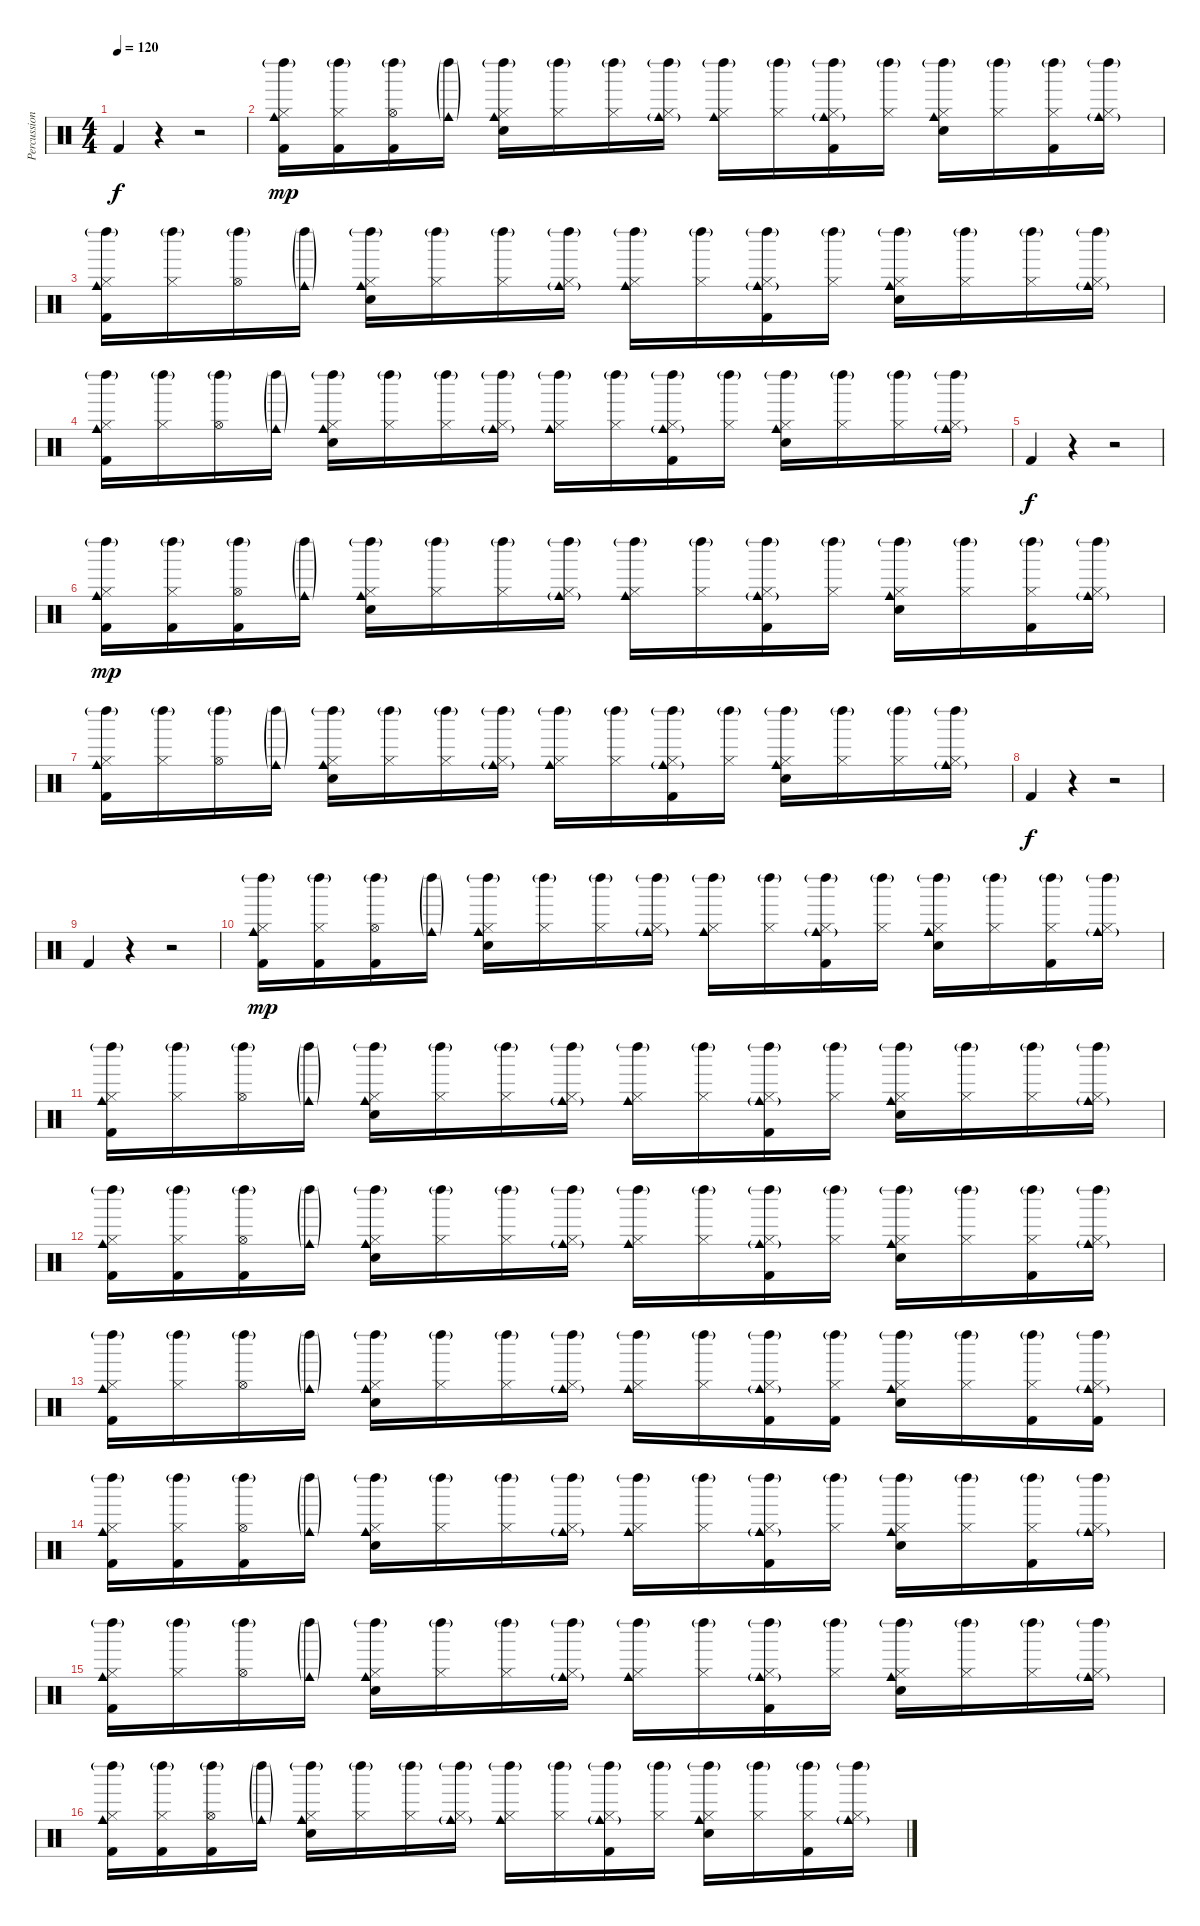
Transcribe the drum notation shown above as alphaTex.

\track ("Percussion" "Percussion") {instrument percussion}
\staff {score}
\articulation defaults
\ts (4 4)
\tempo 120
\clef neutral
\ks c "Kick (hit) 2".4{dy f}
r.4 r.2 |
("Kick (hit) 2" "Hi-Hat (closed)" "Cowbell medium (hit)" "Left Maraca (hit)"{g}).16{dy mp} ("Kick (hit) 2" "Hi-Hat (closed)" "Left Maraca (hit)"{g}).16 ("Kick (hit) 2" "Hi-Hat (open)" "Left Maraca (hit)"{g}).16 ("Cowbell medium (hit)"{g} "Left Maraca (hit)"{g}).16 ("Electric Snare (hit)" "Hi-Hat (closed)" "Cowbell medium (hit)" "Left Maraca (hit)"{g}).16 ("Hi-Hat (closed)" "Left Maraca (hit)"{g}).16 ("Hi-Hat (closed)" "Left Maraca (hit)"{g}).16 ("Hi-Hat (closed)" "Cowbell medium (hit)"{g} "Left Maraca (hit)"{g}).16 ("Hi-Hat (closed)" "Cowbell medium (hit)" "Left Maraca (hit)"{g}).16 ("Hi-Hat (closed)" "Left Maraca (hit)"{g}).16 ("Kick (hit) 2" "Hi-Hat (closed)" "Cowbell medium (hit)"{g} "Left Maraca (hit)"{g}).16 ("Hi-Hat (closed)" "Left Maraca (hit)"{g}).16 ("Electric Snare (hit)" "Hi-Hat (closed)" "Cowbell medium (hit)" "Left Maraca (hit)"{g}).16 ("Hi-Hat (closed)" "Left Maraca (hit)"{g}).16 ("Kick (hit) 2" "Hi-Hat (closed)" "Left Maraca (hit)"{g}).16 ("Hi-Hat (closed)" "Cowbell medium (hit)"{g} "Left Maraca (hit)"{g}).16 |
("Kick (hit) 2" "Hi-Hat (closed)" "Cowbell medium (hit)" "Left Maraca (hit)"{g}).16 ("Hi-Hat (closed)" "Left Maraca (hit)"{g}).16 ("Hi-Hat (open)" "Left Maraca (hit)"{g}).16 ("Cowbell medium (hit)"{g} "Left Maraca (hit)"{g}).16 ("Electric Snare (hit)" "Hi-Hat (closed)" "Cowbell medium (hit)" "Left Maraca (hit)"{g}).16 ("Hi-Hat (closed)" "Left Maraca (hit)"{g}).16 ("Hi-Hat (closed)" "Left Maraca (hit)"{g}).16 ("Hi-Hat (closed)" "Cowbell medium (hit)"{g} "Left Maraca (hit)"{g}).16 ("Hi-Hat (closed)" "Cowbell medium (hit)" "Left Maraca (hit)"{g}).16 ("Hi-Hat (closed)" "Left Maraca (hit)"{g}).16 ("Kick (hit) 2" "Hi-Hat (closed)" "Cowbell medium (hit)"{g} "Left Maraca (hit)"{g}).16 ("Hi-Hat (closed)" "Left Maraca (hit)"{g}).16 ("Electric Snare (hit)" "Hi-Hat (closed)" "Cowbell medium (hit)" "Left Maraca (hit)"{g}).16 ("Hi-Hat (closed)" "Left Maraca (hit)"{g}).16 ("Hi-Hat (closed)" "Left Maraca (hit)"{g}).16 ("Hi-Hat (closed)" "Cowbell medium (hit)"{g} "Left Maraca (hit)"{g}).16 |
("Kick (hit) 2" "Hi-Hat (closed)" "Cowbell medium (hit)" "Left Maraca (hit)"{g}).16 ("Hi-Hat (closed)" "Left Maraca (hit)"{g}).16 ("Hi-Hat (open)" "Left Maraca (hit)"{g}).16 ("Cowbell medium (hit)"{g} "Left Maraca (hit)"{g}).16 ("Electric Snare (hit)" "Hi-Hat (closed)" "Cowbell medium (hit)" "Left Maraca (hit)"{g}).16 ("Hi-Hat (closed)" "Left Maraca (hit)"{g}).16 ("Hi-Hat (closed)" "Left Maraca (hit)"{g}).16 ("Hi-Hat (closed)" "Cowbell medium (hit)"{g} "Left Maraca (hit)"{g}).16 ("Hi-Hat (closed)" "Cowbell medium (hit)" "Left Maraca (hit)"{g}).16 ("Hi-Hat (closed)" "Left Maraca (hit)"{g}).16 ("Kick (hit) 2" "Hi-Hat (closed)" "Cowbell medium (hit)"{g} "Left Maraca (hit)"{g}).16 ("Hi-Hat (closed)" "Left Maraca (hit)"{g}).16 ("Electric Snare (hit)" "Hi-Hat (closed)" "Cowbell medium (hit)" "Left Maraca (hit)"{g}).16 ("Hi-Hat (closed)" "Left Maraca (hit)"{g}).16 ("Hi-Hat (closed)" "Left Maraca (hit)"{g}).16 ("Hi-Hat (closed)" "Cowbell medium (hit)"{g} "Left Maraca (hit)"{g}).16 |
"Kick (hit) 2".4{dy f} r.4 r.2 |
("Kick (hit) 2" "Hi-Hat (closed)" "Cowbell medium (hit)" "Left Maraca (hit)"{g}).16{dy mp} ("Kick (hit) 2" "Hi-Hat (closed)" "Left Maraca (hit)"{g}).16 ("Kick (hit) 2" "Hi-Hat (open)" "Left Maraca (hit)"{g}).16 ("Cowbell medium (hit)"{g} "Left Maraca (hit)"{g}).16 ("Electric Snare (hit)" "Hi-Hat (closed)" "Cowbell medium (hit)" "Left Maraca (hit)"{g}).16 ("Hi-Hat (closed)" "Left Maraca (hit)"{g}).16 ("Hi-Hat (closed)" "Left Maraca (hit)"{g}).16 ("Hi-Hat (closed)" "Cowbell medium (hit)"{g} "Left Maraca (hit)"{g}).16 ("Hi-Hat (closed)" "Cowbell medium (hit)" "Left Maraca (hit)"{g}).16 ("Hi-Hat (closed)" "Left Maraca (hit)"{g}).16 ("Kick (hit) 2" "Hi-Hat (closed)" "Cowbell medium (hit)"{g} "Left Maraca (hit)"{g}).16 ("Hi-Hat (closed)" "Left Maraca (hit)"{g}).16 ("Electric Snare (hit)" "Hi-Hat (closed)" "Cowbell medium (hit)" "Left Maraca (hit)"{g}).16 ("Hi-Hat (closed)" "Left Maraca (hit)"{g}).16 ("Kick (hit) 2" "Hi-Hat (closed)" "Left Maraca (hit)"{g}).16 ("Hi-Hat (closed)" "Cowbell medium (hit)"{g} "Left Maraca (hit)"{g}).16 |
("Kick (hit) 2" "Hi-Hat (closed)" "Cowbell medium (hit)" "Left Maraca (hit)"{g}).16 ("Hi-Hat (closed)" "Left Maraca (hit)"{g}).16 ("Hi-Hat (open)" "Left Maraca (hit)"{g}).16 ("Cowbell medium (hit)"{g} "Left Maraca (hit)"{g}).16 ("Electric Snare (hit)" "Hi-Hat (closed)" "Cowbell medium (hit)" "Left Maraca (hit)"{g}).16 ("Hi-Hat (closed)" "Left Maraca (hit)"{g}).16 ("Hi-Hat (closed)" "Left Maraca (hit)"{g}).16 ("Hi-Hat (closed)" "Cowbell medium (hit)"{g} "Left Maraca (hit)"{g}).16 ("Hi-Hat (closed)" "Cowbell medium (hit)" "Left Maraca (hit)"{g}).16 ("Hi-Hat (closed)" "Left Maraca (hit)"{g}).16 ("Kick (hit) 2" "Hi-Hat (closed)" "Cowbell medium (hit)"{g} "Left Maraca (hit)"{g}).16 ("Hi-Hat (closed)" "Left Maraca (hit)"{g}).16 ("Electric Snare (hit)" "Hi-Hat (closed)" "Cowbell medium (hit)" "Left Maraca (hit)"{g}).16 ("Hi-Hat (closed)" "Left Maraca (hit)"{g}).16 ("Hi-Hat (closed)" "Left Maraca (hit)"{g}).16 ("Hi-Hat (closed)" "Cowbell medium (hit)"{g} "Left Maraca (hit)"{g}).16 |
"Kick (hit) 2".4{dy f} r.4 r.2 |
"Kick (hit) 2".4 r.4 r.2 |
("Kick (hit) 2" "Hi-Hat (closed)" "Cowbell medium (hit)" "Left Maraca (hit)"{g}).16{dy mp} ("Kick (hit) 2" "Hi-Hat (closed)" "Left Maraca (hit)"{g}).16 ("Kick (hit) 2" "Hi-Hat (open)" "Left Maraca (hit)"{g}).16 ("Cowbell medium (hit)"{g} "Left Maraca (hit)"{g}).16 ("Electric Snare (hit)" "Hi-Hat (closed)" "Cowbell medium (hit)" "Left Maraca (hit)"{g}).16 ("Hi-Hat (closed)" "Left Maraca (hit)"{g}).16 ("Hi-Hat (closed)" "Left Maraca (hit)"{g}).16 ("Hi-Hat (closed)" "Cowbell medium (hit)"{g} "Left Maraca (hit)"{g}).16 ("Hi-Hat (closed)" "Cowbell medium (hit)" "Left Maraca (hit)"{g}).16 ("Hi-Hat (closed)" "Left Maraca (hit)"{g}).16 ("Kick (hit) 2" "Hi-Hat (closed)" "Cowbell medium (hit)"{g} "Left Maraca (hit)"{g}).16 ("Hi-Hat (closed)" "Left Maraca (hit)"{g}).16 ("Electric Snare (hit)" "Hi-Hat (closed)" "Cowbell medium (hit)" "Left Maraca (hit)"{g}).16 ("Hi-Hat (closed)" "Left Maraca (hit)"{g}).16 ("Kick (hit) 2" "Hi-Hat (closed)" "Left Maraca (hit)"{g}).16 ("Hi-Hat (closed)" "Cowbell medium (hit)"{g} "Left Maraca (hit)"{g}).16 |
("Kick (hit) 2" "Hi-Hat (closed)" "Cowbell medium (hit)" "Left Maraca (hit)"{g}).16 ("Hi-Hat (closed)" "Left Maraca (hit)"{g}).16 ("Hi-Hat (open)" "Left Maraca (hit)"{g}).16 ("Cowbell medium (hit)"{g} "Left Maraca (hit)"{g}).16 ("Electric Snare (hit)" "Hi-Hat (closed)" "Cowbell medium (hit)" "Left Maraca (hit)"{g}).16 ("Hi-Hat (closed)" "Left Maraca (hit)"{g}).16 ("Hi-Hat (closed)" "Left Maraca (hit)"{g}).16 ("Hi-Hat (closed)" "Cowbell medium (hit)"{g} "Left Maraca (hit)"{g}).16 ("Hi-Hat (closed)" "Cowbell medium (hit)" "Left Maraca (hit)"{g}).16 ("Hi-Hat (closed)" "Left Maraca (hit)"{g}).16 ("Kick (hit) 2" "Hi-Hat (closed)" "Cowbell medium (hit)"{g} "Left Maraca (hit)"{g}).16 ("Hi-Hat (closed)" "Left Maraca (hit)"{g}).16 ("Electric Snare (hit)" "Hi-Hat (closed)" "Cowbell medium (hit)" "Left Maraca (hit)"{g}).16 ("Hi-Hat (closed)" "Left Maraca (hit)"{g}).16 ("Hi-Hat (closed)" "Left Maraca (hit)"{g}).16 ("Hi-Hat (closed)" "Cowbell medium (hit)"{g} "Left Maraca (hit)"{g}).16 |
("Kick (hit) 2" "Hi-Hat (closed)" "Cowbell medium (hit)" "Left Maraca (hit)"{g}).16 ("Kick (hit) 2" "Hi-Hat (closed)" "Left Maraca (hit)"{g}).16 ("Kick (hit) 2" "Hi-Hat (open)" "Left Maraca (hit)"{g}).16 ("Cowbell medium (hit)"{g} "Left Maraca (hit)"{g}).16 ("Electric Snare (hit)" "Hi-Hat (closed)" "Cowbell medium (hit)" "Left Maraca (hit)"{g}).16 ("Hi-Hat (closed)" "Left Maraca (hit)"{g}).16 ("Hi-Hat (closed)" "Left Maraca (hit)"{g}).16 ("Hi-Hat (closed)" "Cowbell medium (hit)"{g} "Left Maraca (hit)"{g}).16 ("Hi-Hat (closed)" "Cowbell medium (hit)" "Left Maraca (hit)"{g}).16 ("Hi-Hat (closed)" "Left Maraca (hit)"{g}).16 ("Kick (hit) 2" "Hi-Hat (closed)" "Cowbell medium (hit)"{g} "Left Maraca (hit)"{g}).16 ("Hi-Hat (closed)" "Left Maraca (hit)"{g}).16 ("Electric Snare (hit)" "Hi-Hat (closed)" "Cowbell medium (hit)" "Left Maraca (hit)"{g}).16 ("Hi-Hat (closed)" "Left Maraca (hit)"{g}).16 ("Kick (hit) 2" "Hi-Hat (closed)" "Left Maraca (hit)"{g}).16 ("Hi-Hat (closed)" "Cowbell medium (hit)"{g} "Left Maraca (hit)"{g}).16 |
("Kick (hit) 2" "Hi-Hat (closed)" "Cowbell medium (hit)" "Left Maraca (hit)"{g}).16 ("Hi-Hat (closed)" "Left Maraca (hit)"{g}).16 ("Hi-Hat (open)" "Left Maraca (hit)"{g}).16 ("Cowbell medium (hit)"{g} "Left Maraca (hit)"{g}).16 ("Electric Snare (hit)" "Hi-Hat (closed)" "Cowbell medium (hit)" "Left Maraca (hit)"{g}).16 ("Hi-Hat (closed)" "Left Maraca (hit)"{g}).16 ("Hi-Hat (closed)" "Left Maraca (hit)"{g}).16 ("Hi-Hat (closed)" "Cowbell medium (hit)"{g} "Left Maraca (hit)"{g}).16 ("Hi-Hat (closed)" "Cowbell medium (hit)" "Left Maraca (hit)"{g}).16 ("Hi-Hat (closed)" "Left Maraca (hit)"{g}).16 ("Kick (hit) 2" "Hi-Hat (closed)" "Cowbell medium (hit)"{g} "Left Maraca (hit)"{g}).16 ("Kick (hit) 2" "Hi-Hat (closed)" "Left Maraca (hit)"{g}).16 ("Electric Snare (hit)" "Hi-Hat (closed)" "Cowbell medium (hit)" "Left Maraca (hit)"{g}).16 ("Hi-Hat (closed)" "Left Maraca (hit)"{g}).16 ("Kick (hit) 2" "Hi-Hat (closed)" "Left Maraca (hit)"{g}).16 ("Kick (hit) 2" "Hi-Hat (closed)" "Cowbell medium (hit)"{g} "Left Maraca (hit)"{g}).16 |
("Kick (hit) 2" "Hi-Hat (closed)" "Cowbell medium (hit)" "Left Maraca (hit)"{g}).16 ("Kick (hit) 2" "Hi-Hat (closed)" "Left Maraca (hit)"{g}).16 ("Kick (hit) 2" "Hi-Hat (open)" "Left Maraca (hit)"{g}).16 ("Cowbell medium (hit)"{g} "Left Maraca (hit)"{g}).16 ("Electric Snare (hit)" "Hi-Hat (closed)" "Cowbell medium (hit)" "Left Maraca (hit)"{g}).16 ("Hi-Hat (closed)" "Left Maraca (hit)"{g}).16 ("Hi-Hat (closed)" "Left Maraca (hit)"{g}).16 ("Hi-Hat (closed)" "Cowbell medium (hit)"{g} "Left Maraca (hit)"{g}).16 ("Hi-Hat (closed)" "Cowbell medium (hit)" "Left Maraca (hit)"{g}).16 ("Hi-Hat (closed)" "Left Maraca (hit)"{g}).16 ("Kick (hit) 2" "Hi-Hat (closed)" "Cowbell medium (hit)"{g} "Left Maraca (hit)"{g}).16 ("Hi-Hat (closed)" "Left Maraca (hit)"{g}).16 ("Electric Snare (hit)" "Hi-Hat (closed)" "Cowbell medium (hit)" "Left Maraca (hit)"{g}).16 ("Hi-Hat (closed)" "Left Maraca (hit)"{g}).16 ("Kick (hit) 2" "Hi-Hat (closed)" "Left Maraca (hit)"{g}).16 ("Hi-Hat (closed)" "Cowbell medium (hit)"{g} "Left Maraca (hit)"{g}).16 |
("Kick (hit) 2" "Hi-Hat (closed)" "Cowbell medium (hit)" "Left Maraca (hit)"{g}).16 ("Hi-Hat (closed)" "Left Maraca (hit)"{g}).16 ("Hi-Hat (open)" "Left Maraca (hit)"{g}).16 ("Cowbell medium (hit)"{g} "Left Maraca (hit)"{g}).16 ("Electric Snare (hit)" "Hi-Hat (closed)" "Cowbell medium (hit)" "Left Maraca (hit)"{g}).16 ("Hi-Hat (closed)" "Left Maraca (hit)"{g}).16 ("Hi-Hat (closed)" "Left Maraca (hit)"{g}).16 ("Hi-Hat (closed)" "Cowbell medium (hit)"{g} "Left Maraca (hit)"{g}).16 ("Hi-Hat (closed)" "Cowbell medium (hit)" "Left Maraca (hit)"{g}).16 ("Hi-Hat (closed)" "Left Maraca (hit)"{g}).16 ("Kick (hit) 2" "Hi-Hat (closed)" "Cowbell medium (hit)"{g} "Left Maraca (hit)"{g}).16 ("Hi-Hat (closed)" "Left Maraca (hit)"{g}).16 ("Electric Snare (hit)" "Hi-Hat (closed)" "Cowbell medium (hit)" "Left Maraca (hit)"{g}).16 ("Hi-Hat (closed)" "Left Maraca (hit)"{g}).16 ("Hi-Hat (closed)" "Left Maraca (hit)"{g}).16 ("Hi-Hat (closed)" "Cowbell medium (hit)"{g} "Left Maraca (hit)"{g}).16 |
("Kick (hit) 2" "Hi-Hat (closed)" "Cowbell medium (hit)" "Left Maraca (hit)"{g}).16 ("Kick (hit) 2" "Hi-Hat (closed)" "Left Maraca (hit)"{g}).16 ("Kick (hit) 2" "Hi-Hat (open)" "Left Maraca (hit)"{g}).16 ("Cowbell medium (hit)"{g} "Left Maraca (hit)"{g}).16 ("Electric Snare (hit)" "Hi-Hat (closed)" "Cowbell medium (hit)" "Left Maraca (hit)"{g}).16 ("Hi-Hat (closed)" "Left Maraca (hit)"{g}).16 ("Hi-Hat (closed)" "Left Maraca (hit)"{g}).16 ("Hi-Hat (closed)" "Cowbell medium (hit)"{g} "Left Maraca (hit)"{g}).16 ("Hi-Hat (closed)" "Cowbell medium (hit)" "Left Maraca (hit)"{g}).16 ("Hi-Hat (closed)" "Left Maraca (hit)"{g}).16 ("Kick (hit) 2" "Hi-Hat (closed)" "Cowbell medium (hit)"{g} "Left Maraca (hit)"{g}).16 ("Hi-Hat (closed)" "Left Maraca (hit)"{g}).16 ("Electric Snare (hit)" "Hi-Hat (closed)" "Cowbell medium (hit)" "Left Maraca (hit)"{g}).16 ("Hi-Hat (closed)" "Left Maraca (hit)"{g}).16 ("Kick (hit) 2" "Hi-Hat (closed)" "Left Maraca (hit)"{g}).16 ("Hi-Hat (closed)" "Cowbell medium (hit)"{g} "Left Maraca (hit)"{g}).16
